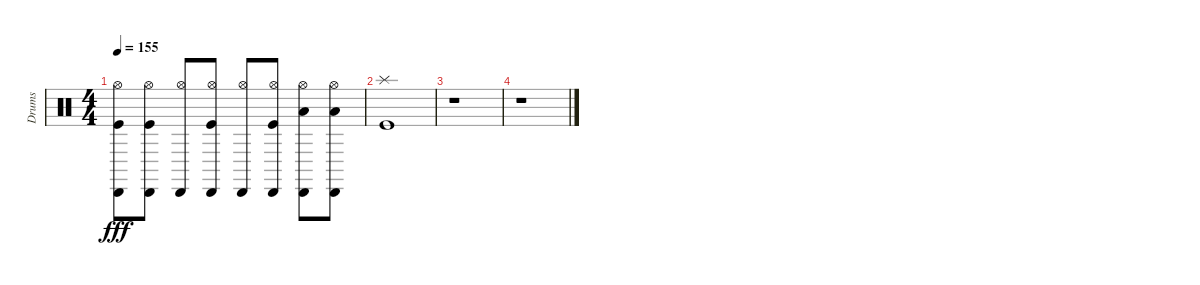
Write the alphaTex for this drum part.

\track ("Drums" "Drums") {instrument percussion}
\staff {score}
\articulation defaults
\ts (4 4)
\tempo 155
\clef neutral
\ks c
("Hi-Hat (open)" "Cabasa (hit)" "Kick (hit)").8{dy fff} ("Hi-Hat (open)" "Cabasa (hit)" "Kick (hit)").8 ("Hi-Hat (open)" "Cabasa (hit)").8 ("Hi-Hat (open)" "Cabasa (hit)" "Kick (hit)").8 ("Hi-Hat (open)" "Cabasa (hit)").8 ("Hi-Hat (open)" "Cabasa (hit)" "Kick (hit)").8 ("Hi-Hat (open)" "Cabasa (hit)" "Low Tom (hit)").8 ("Hi-Hat (open)" "Cabasa (hit)" "Low Tom (hit)").8 |
("Splash (hit)" "Kick (hit)").1 |
r.1 |
r.1
